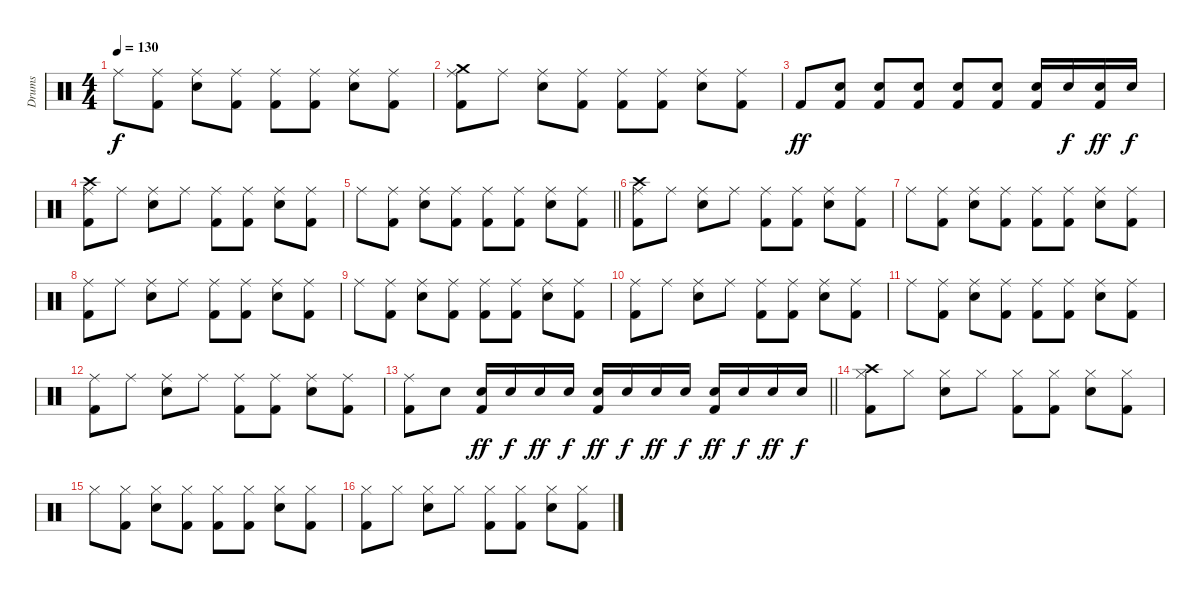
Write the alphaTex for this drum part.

\track ("Drums" "Drums") {instrument percussion}
\staff {score}
\articulation defaults
\ts (4 4)
\tempo 130
\clef neutral
\ks c "Ride (middle)".8{dy f}
("Ride (middle)" "Kick (hit) 2").8 ("Ride (middle)" "Electric Snare (hit)").8 ("Ride (middle)" "Kick (hit) 2").8 ("Ride (middle)" "Kick (hit) 2").8 ("Ride (middle)" "Kick (hit) 2").8 ("Ride (middle)" "Electric Snare (hit)").8 ("Ride (middle)" "Kick (hit) 2").8 |
("Ride (middle)" "Crash medium (hit)" "Kick (hit) 2").8 "Ride (middle)".8 ("Ride (middle)" "Electric Snare (hit)").8 ("Ride (middle)" "Kick (hit) 2").8 ("Ride (middle)" "Kick (hit) 2").8 ("Ride (middle)" "Kick (hit) 2").8 ("Ride (middle)" "Electric Snare (hit)").8 ("Ride (middle)" "Kick (hit) 2").8 |
"Kick (hit) 2".8{dy ff} ("Electric Snare (hit)" "Kick (hit) 2").8 ("Electric Snare (hit)" "Kick (hit) 2").8 ("Electric Snare (hit)" "Kick (hit) 2").8 ("Electric Snare (hit)" "Kick (hit) 2").8 ("Electric Snare (hit)" "Kick (hit) 2").8 ("Electric Snare (hit)" "Kick (hit) 2").16 "Electric Snare (hit)".16{dy f} ("Electric Snare (hit)" "Kick (hit) 2").16{dy ff} "Electric Snare (hit)".16{dy f} |
("Ride (middle)" "Crash high (hit)" "Kick (hit) 2").8 "Ride (middle)".8 ("Ride (middle)" "Electric Snare (hit)").8 "Ride (middle)".8 ("Ride (middle)" "Kick (hit) 2").8 ("Ride (middle)" "Kick (hit) 2").8 ("Ride (middle)" "Electric Snare (hit)").8 ("Ride (middle)" "Kick (hit) 2").8 |
\barLineRight lightlight "Ride (middle)".8
("Ride (middle)" "Kick (hit) 2").8 ("Ride (middle)" "Electric Snare (hit)").8 ("Ride (middle)" "Kick (hit) 2").8 ("Ride (middle)" "Kick (hit) 2").8 ("Ride (middle)" "Kick (hit) 2").8 ("Ride (middle)" "Electric Snare (hit)").8 ("Ride (middle)" "Kick (hit) 2").8 |
("Ride (middle)" "Crash high (hit)" "Kick (hit) 2").8 "Ride (middle)".8 ("Ride (middle)" "Electric Snare (hit)").8 "Ride (middle)".8 ("Ride (middle)" "Kick (hit) 2").8 ("Ride (middle)" "Kick (hit) 2").8 ("Ride (middle)" "Electric Snare (hit)").8 ("Ride (middle)" "Kick (hit) 2").8 |
"Ride (middle)".8 ("Ride (middle)" "Kick (hit) 2").8 ("Ride (middle)" "Electric Snare (hit)").8 ("Ride (middle)" "Kick (hit) 2").8 ("Ride (middle)" "Kick (hit) 2").8 ("Ride (middle)" "Kick (hit) 2").8 ("Ride (middle)" "Electric Snare (hit)").8 ("Ride (middle)" "Kick (hit) 2").8 |
("Ride (middle)" "Kick (hit) 2").8 "Ride (middle)".8 ("Ride (middle)" "Electric Snare (hit)").8 "Ride (middle)".8 ("Ride (middle)" "Kick (hit) 2").8 ("Ride (middle)" "Kick (hit) 2").8 ("Ride (middle)" "Electric Snare (hit)").8 ("Ride (middle)" "Kick (hit) 2").8 |
"Ride (middle)".8 ("Ride (middle)" "Kick (hit) 2").8 ("Ride (middle)" "Electric Snare (hit)").8 ("Ride (middle)" "Kick (hit) 2").8 ("Ride (middle)" "Kick (hit) 2").8 ("Ride (middle)" "Kick (hit) 2").8 ("Ride (middle)" "Electric Snare (hit)").8 ("Ride (middle)" "Kick (hit) 2").8 |
("Ride (middle)" "Kick (hit) 2").8 "Ride (middle)".8 ("Ride (middle)" "Electric Snare (hit)").8 "Ride (middle)".8 ("Ride (middle)" "Kick (hit) 2").8 ("Ride (middle)" "Kick (hit) 2").8 ("Ride (middle)" "Electric Snare (hit)").8 ("Ride (middle)" "Kick (hit) 2").8 |
"Ride (middle)".8 ("Ride (middle)" "Kick (hit) 2").8 ("Ride (middle)" "Electric Snare (hit)").8 ("Ride (middle)" "Kick (hit) 2").8 ("Ride (middle)" "Kick (hit) 2").8 ("Ride (middle)" "Kick (hit) 2").8 ("Ride (middle)" "Electric Snare (hit)").8 ("Ride (middle)" "Kick (hit) 2").8 |
("Ride (middle)" "Kick (hit) 2").8 "Ride (middle)".8 ("Ride (middle)" "Electric Snare (hit)").8 "Ride (middle)".8 ("Ride (middle)" "Kick (hit) 2").8 ("Ride (middle)" "Kick (hit) 2").8 ("Ride (middle)" "Electric Snare (hit)").8 ("Ride (middle)" "Kick (hit) 2").8 |
\barLineRight lightlight
("Ride (middle)" "Kick (hit) 2").8 "Electric Snare (hit)".8 ("Electric Snare (hit)" "Kick (hit) 2").16{dy ff} "Electric Snare (hit)".16{dy f} "Electric Snare (hit)".16{dy ff} "Electric Snare (hit)".16{dy f} ("Electric Snare (hit)" "Kick (hit) 2").16{dy ff} "Electric Snare (hit)".16{dy f} "Electric Snare (hit)".16{dy ff} "Electric Snare (hit)".16{dy f} ("Electric Snare (hit)" "Kick (hit) 2").16{dy ff} "Electric Snare (hit)".16{dy f} "Electric Snare (hit)".16{dy ff} "Electric Snare (hit)".16{dy f} |
("Hi-Hat (closed)" "Crash high (hit)" "Kick (hit) 2").8 "Hi-Hat (closed)".8 ("Hi-Hat (closed)" "Electric Snare (hit)").8 "Hi-Hat (closed)".8 ("Hi-Hat (closed)" "Kick (hit) 2").8 ("Hi-Hat (closed)" "Kick (hit) 2").8 ("Hi-Hat (closed)" "Electric Snare (hit)").8 ("Hi-Hat (closed)" "Kick (hit) 2").8 |
"Hi-Hat (closed)".8 ("Hi-Hat (closed)" "Kick (hit) 2").8 ("Hi-Hat (closed)" "Electric Snare (hit)").8 ("Hi-Hat (closed)" "Kick (hit) 2").8 ("Hi-Hat (closed)" "Kick (hit) 2").8 ("Hi-Hat (closed)" "Kick (hit) 2").8 ("Hi-Hat (closed)" "Electric Snare (hit)").8 ("Hi-Hat (closed)" "Kick (hit) 2").8 |
("Hi-Hat (closed)" "Kick (hit) 2").8 "Hi-Hat (closed)".8 ("Hi-Hat (closed)" "Electric Snare (hit)").8 "Hi-Hat (closed)".8 ("Hi-Hat (closed)" "Kick (hit) 2").8 ("Hi-Hat (closed)" "Kick (hit) 2").8 ("Hi-Hat (closed)" "Electric Snare (hit)").8 ("Hi-Hat (closed)" "Kick (hit) 2").8
